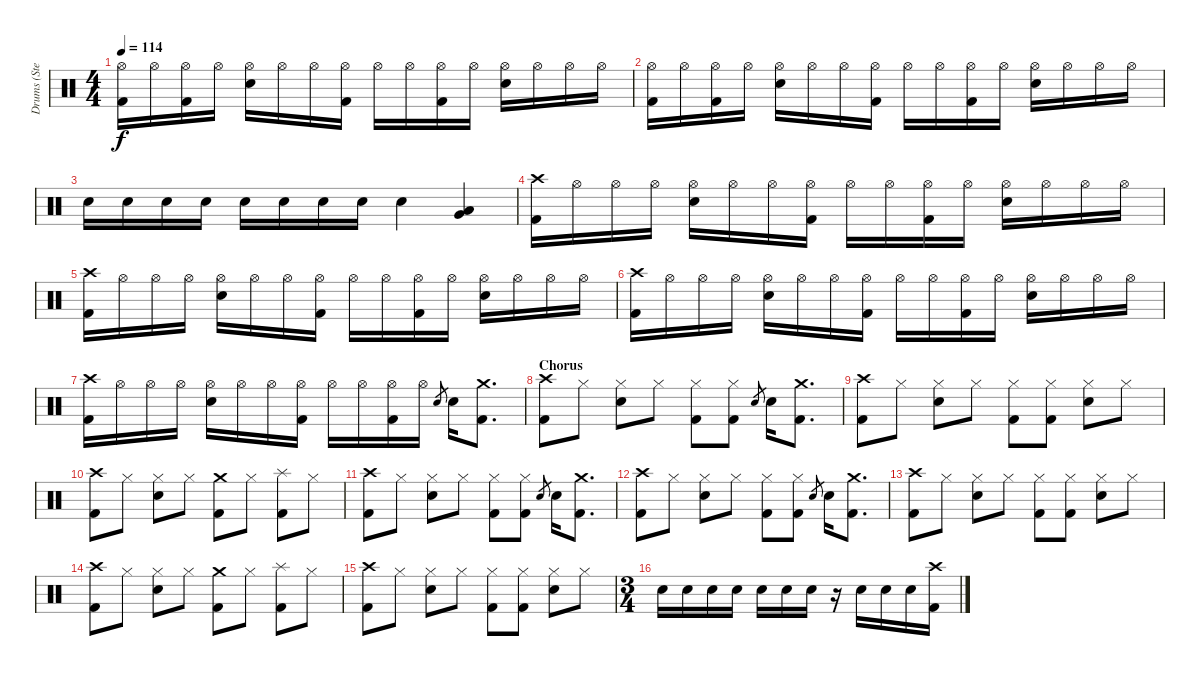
\track ("Drums (Steven)" "Drums (Ste") {instrument percussion}
\staff {score}
\articulation defaults
\ts (4 4)
\tempo 114
\clef neutral
\ks c
("Hi-Hat (open)" "Kick (hit) 2").16{dy f} "Hi-Hat (open)".16 ("Hi-Hat (open)" "Kick (hit) 2").16 "Hi-Hat (open)".16 ("Hi-Hat (open)" "Snare (hit) 2").16 "Hi-Hat (open)".16 "Hi-Hat (open)".16 ("Hi-Hat (open)" "Kick (hit) 2").16 "Hi-Hat (open)".16 "Hi-Hat (open)".16 ("Hi-Hat (open)" "Kick (hit) 2").16 "Hi-Hat (open)".16 ("Hi-Hat (open)" "Snare (hit) 2").16 "Hi-Hat (open)".16 "Hi-Hat (open)".16 "Hi-Hat (open)".16 |
("Hi-Hat (open)" "Kick (hit) 2").16 "Hi-Hat (open)".16 ("Hi-Hat (open)" "Kick (hit) 2").16 "Hi-Hat (open)".16 ("Hi-Hat (open)" "Snare (hit) 2").16 "Hi-Hat (open)".16 "Hi-Hat (open)".16 ("Hi-Hat (open)" "Kick (hit) 2").16 "Hi-Hat (open)".16 "Hi-Hat (open)".16 ("Hi-Hat (open)" "Kick (hit) 2").16 "Hi-Hat (open)".16 ("Hi-Hat (open)" "Snare (hit) 2").16 "Hi-Hat (open)".16 "Hi-Hat (open)".16 "Hi-Hat (open)".16 |
"Snare (hit) 2".16 "Snare (hit) 2".16 "Snare (hit) 2".16 "Snare (hit) 2".16 "Snare (hit) 2".16 "Snare (hit) 2".16 "Snare (hit) 2".16 "Snare (hit) 2".16 "Snare (hit) 2".4 ("Low Tom (hit)" "Very Low Tom (hit)").4 |
("Crash high (hit)" "Kick (hit) 2").16 "Hi-Hat (open)".16 "Hi-Hat (open)".16 "Hi-Hat (open)".16 ("Hi-Hat (open)" "Snare (hit) 2").16 "Hi-Hat (open)".16 "Hi-Hat (open)".16 ("Hi-Hat (open)" "Kick (hit) 2").16 "Hi-Hat (open)".16 "Hi-Hat (open)".16 ("Hi-Hat (open)" "Kick (hit) 2").16 "Hi-Hat (open)".16 ("Hi-Hat (open)" "Snare (hit) 2").16 "Hi-Hat (open)".16 "Hi-Hat (open)".16 "Hi-Hat (open)".16 |
("Crash high (hit)" "Kick (hit) 2").16 "Hi-Hat (open)".16 "Hi-Hat (open)".16 "Hi-Hat (open)".16 ("Hi-Hat (open)" "Snare (hit) 2").16 "Hi-Hat (open)".16 "Hi-Hat (open)".16 ("Hi-Hat (open)" "Kick (hit) 2").16 "Hi-Hat (open)".16 "Hi-Hat (open)".16 ("Hi-Hat (open)" "Kick (hit) 2").16 "Hi-Hat (open)".16 ("Hi-Hat (open)" "Snare (hit) 2").16 "Hi-Hat (open)".16 "Hi-Hat (open)".16 "Hi-Hat (open)".16 |
("Crash high (hit)" "Kick (hit) 2").16 "Hi-Hat (open)".16 "Hi-Hat (open)".16 "Hi-Hat (open)".16 ("Hi-Hat (open)" "Snare (hit) 2").16 "Hi-Hat (open)".16 "Hi-Hat (open)".16 ("Hi-Hat (open)" "Kick (hit) 2").16 "Hi-Hat (open)".16 "Hi-Hat (open)".16 ("Hi-Hat (open)" "Kick (hit) 2").16 "Hi-Hat (open)".16 ("Hi-Hat (open)" "Snare (hit) 2").16 "Hi-Hat (open)".16 "Hi-Hat (open)".16 "Hi-Hat (open)".16 |
("Crash high (hit)" "Kick (hit) 2").16 "Hi-Hat (open)".16 "Hi-Hat (open)".16 "Hi-Hat (open)".16 ("Hi-Hat (open)" "Snare (hit) 2").16 "Hi-Hat (open)".16 "Hi-Hat (open)".16 ("Hi-Hat (open)" "Kick (hit) 2").16 "Hi-Hat (open)".16 "Hi-Hat (open)".16 ("Hi-Hat (open)" "Kick (hit) 2").16 "Hi-Hat (open)".16 "Snare (hit) 2".8{gr} "Snare (hit) 2".16 ("Crash medium (hit)" "Kick (hit) 2").8{d} |
\section ("" "Chorus")
("Crash high (hit)" "Kick (hit) 2").8 "Hi-Hat (closed)".8 ("Hi-Hat (closed)" "Snare (hit) 2").8 "Hi-Hat (closed)".8 ("Hi-Hat (closed)" "Kick (hit) 2").8 ("Hi-Hat (closed)" "Kick (hit) 2").8 "Snare (hit) 2".8{gr} "Snare (hit) 2".16 ("Crash medium (hit)" "Kick (hit) 2").8{d} |
("Crash high (hit)" "Kick (hit) 2").8 "Hi-Hat (closed)".8 ("Hi-Hat (closed)" "Snare (hit) 2").8 "Hi-Hat (closed)".8 ("Hi-Hat (closed)" "Kick (hit) 2").8 ("Hi-Hat (closed)" "Kick (hit) 2").8 ("Hi-Hat (closed)" "Snare (hit) 2").8 "Hi-Hat (closed)".8 |
("Crash high (hit)" "Kick (hit) 2").8 "Hi-Hat (closed)".8 ("Hi-Hat (closed)" "Snare (hit) 2").8 "Hi-Hat (closed)".8 ("Crash medium (hit)" "Kick (hit) 2").8 "Hi-Hat (closed)".8 ("Splash (hit)" "Kick (hit) 2").8 "Hi-Hat (closed)".8 |
("Crash high (hit)" "Kick (hit) 2").8 "Hi-Hat (closed)".8 ("Hi-Hat (closed)" "Snare (hit) 2").8 "Hi-Hat (closed)".8 ("Hi-Hat (closed)" "Kick (hit) 2").8 ("Hi-Hat (closed)" "Kick (hit) 2").8 "Snare (hit) 2".8{gr} "Snare (hit) 2".16 ("Crash medium (hit)" "Kick (hit) 2").8{d} |
("Crash high (hit)" "Kick (hit) 2").8 "Hi-Hat (closed)".8 ("Hi-Hat (closed)" "Snare (hit) 2").8 "Hi-Hat (closed)".8 ("Hi-Hat (closed)" "Kick (hit) 2").8 ("Hi-Hat (closed)" "Kick (hit) 2").8 "Snare (hit) 2".8{gr} "Snare (hit) 2".16 ("Crash medium (hit)" "Kick (hit) 2").8{d} |
("Crash high (hit)" "Kick (hit) 2").8 "Hi-Hat (closed)".8 ("Hi-Hat (closed)" "Snare (hit) 2").8 "Hi-Hat (closed)".8 ("Hi-Hat (closed)" "Kick (hit) 2").8 ("Hi-Hat (closed)" "Kick (hit) 2").8 ("Hi-Hat (closed)" "Snare (hit) 2").8 "Hi-Hat (closed)".8 |
("Crash high (hit)" "Kick (hit) 2").8 "Hi-Hat (closed)".8 ("Hi-Hat (closed)" "Snare (hit) 2").8 "Hi-Hat (closed)".8 ("Crash medium (hit)" "Kick (hit) 2").8 "Hi-Hat (closed)".8 ("Splash (hit)" "Kick (hit) 2").8 "Hi-Hat (closed)".8 |
("Crash high (hit)" "Kick (hit) 2").8 "Hi-Hat (closed)".8 ("Hi-Hat (closed)" "Snare (hit) 2").8 "Hi-Hat (closed)".8 ("Hi-Hat (closed)" "Kick (hit) 2").8 ("Hi-Hat (closed)" "Kick (hit) 2").8 ("Hi-Hat (closed)" "Snare (hit) 2").8 "Hi-Hat (closed)".8 |
\ts (3 4)
"Snare (hit) 2".16 "Snare (hit) 2".16 "Snare (hit) 2".16 "Snare (hit) 2".16 "Snare (hit) 2".16 "Snare (hit) 2".16 "Snare (hit) 2".16 r.16 "Snare (hit) 2".16 "Snare (hit) 2".16 "Snare (hit) 2".16 ("Crash high (hit)" "Kick (hit) 2").16
